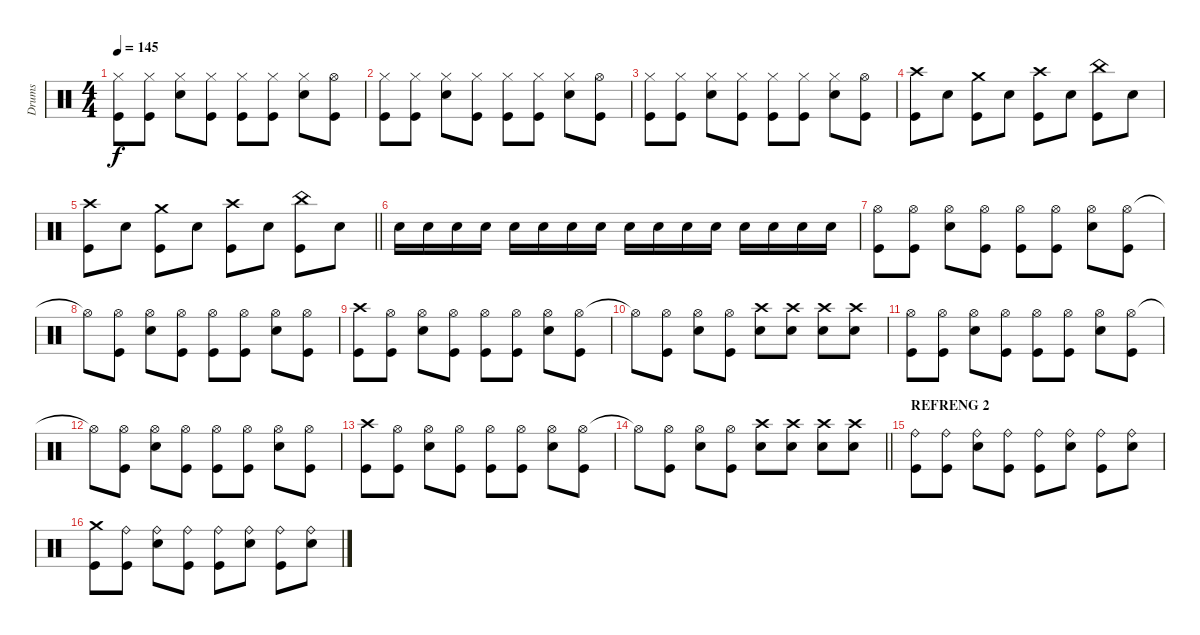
\track ("Drums" "Drums") {instrument percussion}
\staff {score}
\articulation defaults
\ts (4 4)
\tempo 145
\clef neutral
\ks c
("Hi-Hat (closed)" "Kick (hit)").8{dy f} ("Hi-Hat (closed)" "Kick (hit)").8 ("Hi-Hat (closed)" "Snare (hit) 2").8 ("Hi-Hat (closed)" "Kick (hit)").8 ("Hi-Hat (closed)" "Kick (hit)").8 ("Hi-Hat (closed)" "Kick (hit)").8 ("Hi-Hat (closed)" "Snare (hit) 2").8 ("Hi-Hat (open)" "Kick (hit)").8 |
("Hi-Hat (closed)" "Kick (hit)").8 ("Hi-Hat (closed)" "Kick (hit)").8 ("Hi-Hat (closed)" "Snare (hit) 2").8 ("Hi-Hat (closed)" "Kick (hit)").8 ("Hi-Hat (closed)" "Kick (hit)").8 ("Hi-Hat (closed)" "Kick (hit)").8 ("Hi-Hat (closed)" "Snare (hit) 2").8 ("Hi-Hat (open)" "Kick (hit)").8 |
("Hi-Hat (closed)" "Kick (hit)").8 ("Hi-Hat (closed)" "Kick (hit)").8 ("Hi-Hat (closed)" "Snare (hit) 2").8 ("Hi-Hat (closed)" "Kick (hit)").8 ("Hi-Hat (closed)" "Kick (hit)").8 ("Hi-Hat (closed)" "Kick (hit)").8 ("Hi-Hat (closed)" "Snare (hit) 2").8 ("Hi-Hat (open)" "Kick (hit)").8 |
("Crash high (hit)" "Kick (hit)").8 "Snare (hit) 2".8 ("Crash medium (hit)" "Kick (hit)").8 "Snare (hit) 2".8 ("Crash high (hit)" "Kick (hit)").8 "Snare (hit) 2".8 ("China (hit)" "Kick (hit)").8 "Snare (hit) 2".8 |
\barLineRight lightlight
("Crash high (hit)" "Kick (hit)").8 "Snare (hit) 2".8 ("Crash medium (hit)" "Kick (hit)").8 "Snare (hit) 2".8 ("Crash high (hit)" "Kick (hit)").8 "Snare (hit) 2".8 ("China (hit)" "Kick (hit)").8 "Snare (hit) 2".8 |
"Snare (hit) 2".16 "Snare (hit) 2".16 "Snare (hit) 2".16 "Snare (hit) 2".16 "Snare (hit) 2".16 "Snare (hit) 2".16 "Snare (hit) 2".16 "Snare (hit) 2".16 "Snare (hit) 2".16 "Snare (hit) 2".16 "Snare (hit) 2".16 "Snare (hit) 2".16 "Snare (hit) 2".16 "Snare (hit) 2".16 "Snare (hit) 2".16 "Snare (hit) 2".16 |
("Hi-Hat (open)" "Kick (hit)").8 ("Hi-Hat (open)" "Kick (hit)").8 ("Hi-Hat (open)" "Snare (hit) 2").8 ("Hi-Hat (open)" "Kick (hit)").8 ("Hi-Hat (open)" "Kick (hit)").8 ("Hi-Hat (open)" "Kick (hit)").8 ("Hi-Hat (open)" "Snare (hit) 2").8 ("Hi-Hat (open)" "Kick (hit)").8 |
"Hi-Hat (open)"{t}.8 ("Hi-Hat (open)" "Kick (hit)").8 ("Hi-Hat (open)" "Snare (hit) 2").8 ("Hi-Hat (open)" "Kick (hit)").8 ("Hi-Hat (open)" "Kick (hit)").8 ("Hi-Hat (open)" "Kick (hit)").8 ("Hi-Hat (open)" "Snare (hit) 2").8 ("Hi-Hat (open)" "Kick (hit)").8 |
("Crash high (hit)" "Kick (hit)").8 ("Hi-Hat (open)" "Kick (hit)").8 ("Hi-Hat (open)" "Snare (hit) 2").8 ("Hi-Hat (open)" "Kick (hit)").8 ("Hi-Hat (open)" "Kick (hit)").8 ("Hi-Hat (open)" "Kick (hit)").8 ("Hi-Hat (open)" "Snare (hit) 2").8 ("Hi-Hat (open)" "Kick (hit)").8 |
"Hi-Hat (open)"{t}.8 ("Hi-Hat (open)" "Kick (hit)").8 ("Hi-Hat (open)" "Snare (hit) 2").8 ("Hi-Hat (open)" "Kick (hit)").8 ("Crash high (hit)" "Snare (hit) 2").8 ("Crash high (hit)" "Snare (hit) 2").8 ("Crash high (hit)" "Snare (hit) 2").8 ("Crash high (hit)" "Snare (hit) 2").8 |
("Hi-Hat (open)" "Kick (hit)").8 ("Hi-Hat (open)" "Kick (hit)").8 ("Hi-Hat (open)" "Snare (hit) 2").8 ("Hi-Hat (open)" "Kick (hit)").8 ("Hi-Hat (open)" "Kick (hit)").8 ("Hi-Hat (open)" "Kick (hit)").8 ("Hi-Hat (open)" "Snare (hit) 2").8 ("Hi-Hat (open)" "Kick (hit)").8 |
"Hi-Hat (open)"{t}.8 ("Hi-Hat (open)" "Kick (hit)").8 ("Hi-Hat (open)" "Snare (hit) 2").8 ("Hi-Hat (open)" "Kick (hit)").8 ("Hi-Hat (open)" "Kick (hit)").8 ("Hi-Hat (open)" "Kick (hit)").8 ("Hi-Hat (open)" "Snare (hit) 2").8 ("Hi-Hat (open)" "Kick (hit)").8 |
("Crash high (hit)" "Kick (hit)").8 ("Hi-Hat (open)" "Kick (hit)").8 ("Hi-Hat (open)" "Snare (hit) 2").8 ("Hi-Hat (open)" "Kick (hit)").8 ("Hi-Hat (open)" "Kick (hit)").8 ("Hi-Hat (open)" "Kick (hit)").8 ("Hi-Hat (open)" "Snare (hit) 2").8 ("Hi-Hat (open)" "Kick (hit)").8 |
\barLineRight lightlight "Hi-Hat (open)"{t}.8
("Hi-Hat (open)" "Kick (hit)").8 ("Hi-Hat (open)" "Snare (hit) 2").8 ("Hi-Hat (open)" "Kick (hit)").8 ("Crash high (hit)" "Snare (hit) 2").8 ("Crash high (hit)" "Snare (hit) 2").8 ("Crash high (hit)" "Snare (hit) 2").8 ("Crash high (hit)" "Snare (hit) 2").8 |
\section ("" "REFRENG 2")
("Ride (bell)" "Kick (hit)").8 ("Ride (bell)" "Kick (hit)").8 ("Ride (bell)" "Snare (hit) 2").8 ("Ride (bell)" "Kick (hit)").8 ("Ride (bell)" "Kick (hit)").8 ("Ride (bell)" "Snare (hit) 2").8 ("Ride (bell)" "Kick (hit)").8 ("Ride (bell)" "Snare (hit) 2").8 |
("Crash medium (hit)" "Kick (hit)").8 ("Ride (bell)" "Kick (hit)").8 ("Ride (bell)" "Snare (hit) 2").8 ("Ride (bell)" "Kick (hit)").8 ("Ride (bell)" "Kick (hit)").8 ("Ride (bell)" "Snare (hit) 2").8 ("Ride (bell)" "Kick (hit)").8 ("Ride (bell)" "Snare (hit) 2").8
